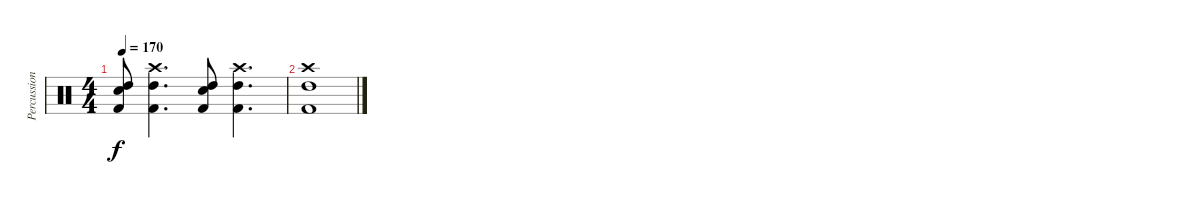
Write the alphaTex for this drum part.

\track ("Percussion" "Percussion") {instrument percussion}
\staff {score}
\articulation defaults
\ts (4 4)
\tempo 170
\clef neutral
\ks c
("Snare (hit) 2" "High Tom (hit)" "Kick (hit) 2").8{dy f} ("Crash high (hit)" "High Tom (hit)" "Kick (hit) 2").4{d} ("Snare (hit) 2" "High Tom (hit)" "Kick (hit) 2").8 ("Crash high (hit)" "High Tom (hit)" "Kick (hit) 2").4{d} |
("Crash high (hit)" "High Tom (hit)" "Kick (hit) 2").1
